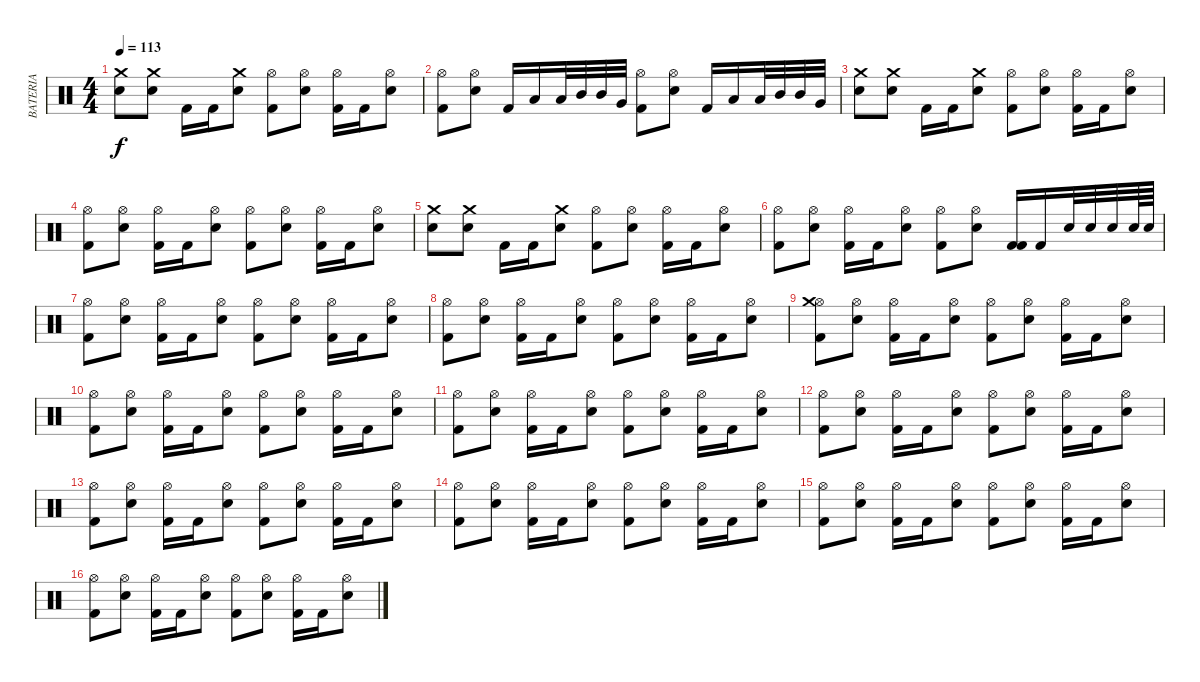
\track ("BATERIA" "BATERIA") {instrument percussion}
\staff {score}
\articulation defaults
\ts (4 4)
\tempo 113
\clef neutral
\ks c
("Crash medium (hit)" "Electric Snare (hit)").8{dy f} ("Crash medium (hit)" "Electric Snare (hit)").8 "Kick (hit) 2".16 "Kick (hit) 2".16 ("Crash medium (hit)" "Electric Snare (hit)").8 ("Hi-Hat (open)" "Kick (hit) 2").8 ("Hi-Hat (open)" "Electric Snare (hit)").8 ("Hi-Hat (open)" "Kick (hit) 2").16 "Kick (hit) 2".16 ("Hi-Hat (open)" "Electric Snare (hit)").8 |
("Hi-Hat (open)" "Kick (hit) 2").8 ("Hi-Hat (open)" "Electric Snare (hit)").8 "Kick (hit) 2".16 "Low Tom (hit)".16 "Low Tom (hit)".32 "Mid Tom (hit)".32 "Mid Tom (hit)".32 "Very Low Tom (hit)".32 ("Hi-Hat (open)" "Kick (hit) 2").8 ("Hi-Hat (open)" "Electric Snare (hit)").8 "Kick (hit) 2".16 "Low Tom (hit)".16 "Low Tom (hit)".32 "Mid Tom (hit)".32 "Mid Tom (hit)".32 "Very Low Tom (hit)".32 |
("Crash medium (hit)" "Electric Snare (hit)").8 ("Crash medium (hit)" "Electric Snare (hit)").8 "Kick (hit) 2".16 "Kick (hit) 2".16 ("Crash medium (hit)" "Electric Snare (hit)").8 ("Hi-Hat (open)" "Kick (hit) 2").8 ("Hi-Hat (open)" "Electric Snare (hit)").8 ("Hi-Hat (open)" "Kick (hit) 2").16 "Kick (hit) 2".16 ("Hi-Hat (open)" "Electric Snare (hit)").8 |
("Hi-Hat (open)" "Kick (hit) 2").8 ("Hi-Hat (open)" "Electric Snare (hit)").8 ("Hi-Hat (open)" "Kick (hit) 2").16 "Kick (hit) 2".16 ("Hi-Hat (open)" "Electric Snare (hit)").8 ("Hi-Hat (open)" "Kick (hit) 2").8 ("Hi-Hat (open)" "Electric Snare (hit)").8 ("Hi-Hat (open)" "Kick (hit) 2").16 "Kick (hit) 2".16 ("Hi-Hat (open)" "Electric Snare (hit)").8 |
("Crash medium (hit)" "Electric Snare (hit)").8 ("Crash medium (hit)" "Electric Snare (hit)").8 "Kick (hit) 2".16 "Kick (hit) 2".16 ("Crash medium (hit)" "Electric Snare (hit)").8 ("Hi-Hat (open)" "Kick (hit) 2").8 ("Hi-Hat (open)" "Electric Snare (hit)").8 ("Hi-Hat (open)" "Kick (hit) 2").16 "Kick (hit) 2".16 ("Hi-Hat (open)" "Electric Snare (hit)").8 |
("Hi-Hat (open)" "Kick (hit) 2").8 ("Hi-Hat (open)" "Electric Snare (hit)").8 ("Hi-Hat (open)" "Kick (hit) 2").16 "Kick (hit) 2".16 ("Hi-Hat (open)" "Electric Snare (hit)").8 ("Hi-Hat (open)" "Kick (hit) 2").8 ("Hi-Hat (open)" "Electric Snare (hit)").8 ("Kick (hit) 2" "Kick (hit) 2").16 "Kick (hit) 2".16 "Electric Snare (hit)".32 "Electric Snare (hit)".32 "Electric Snare (hit)".32 "Electric Snare (hit)".64 "Electric Snare (hit)".64 |
("Hi-Hat (open)" "Kick (hit) 2").8 ("Hi-Hat (open)" "Electric Snare (hit)").8 ("Hi-Hat (open)" "Kick (hit) 2").16 "Kick (hit) 2".16 ("Hi-Hat (open)" "Electric Snare (hit)").8 ("Hi-Hat (open)" "Kick (hit) 2").8 ("Hi-Hat (open)" "Electric Snare (hit)").8 ("Hi-Hat (open)" "Kick (hit) 2").16 "Kick (hit) 2".16 ("Hi-Hat (open)" "Electric Snare (hit)").8 |
("Hi-Hat (open)" "Kick (hit) 2").8 ("Hi-Hat (open)" "Electric Snare (hit)").8 ("Hi-Hat (open)" "Kick (hit) 2").16 "Kick (hit) 2".16 ("Hi-Hat (open)" "Electric Snare (hit)").8 ("Hi-Hat (open)" "Kick (hit) 2").8 ("Hi-Hat (open)" "Electric Snare (hit)").8 ("Hi-Hat (open)" "Kick (hit) 2").16 "Kick (hit) 2".16 ("Hi-Hat (open)" "Electric Snare (hit)").8 |
("Hi-Hat (open)" "Kick (hit) 2" "Crash medium (hit)").8 ("Hi-Hat (open)" "Electric Snare (hit)").8 ("Hi-Hat (open)" "Kick (hit) 2").16 "Kick (hit) 2".16 ("Hi-Hat (open)" "Electric Snare (hit)").8 ("Hi-Hat (open)" "Kick (hit) 2").8 ("Hi-Hat (open)" "Electric Snare (hit)").8 ("Hi-Hat (open)" "Kick (hit) 2").16 "Kick (hit) 2".16 ("Hi-Hat (open)" "Electric Snare (hit)").8 |
("Hi-Hat (open)" "Kick (hit) 2").8 ("Hi-Hat (open)" "Electric Snare (hit)").8 ("Hi-Hat (open)" "Kick (hit) 2").16 "Kick (hit) 2".16 ("Hi-Hat (open)" "Electric Snare (hit)").8 ("Hi-Hat (open)" "Kick (hit) 2").8 ("Hi-Hat (open)" "Electric Snare (hit)").8 ("Hi-Hat (open)" "Kick (hit) 2").16 "Kick (hit) 2".16 ("Hi-Hat (open)" "Electric Snare (hit)").8 |
("Hi-Hat (open)" "Kick (hit) 2").8 ("Hi-Hat (open)" "Electric Snare (hit)").8 ("Hi-Hat (open)" "Kick (hit) 2").16 "Kick (hit) 2".16 ("Hi-Hat (open)" "Electric Snare (hit)").8 ("Hi-Hat (open)" "Kick (hit) 2").8 ("Hi-Hat (open)" "Electric Snare (hit)").8 ("Hi-Hat (open)" "Kick (hit) 2").16 "Kick (hit) 2".16 ("Hi-Hat (open)" "Electric Snare (hit)").8 |
("Hi-Hat (open)" "Kick (hit) 2").8 ("Hi-Hat (open)" "Electric Snare (hit)").8 ("Hi-Hat (open)" "Kick (hit) 2").16 "Kick (hit) 2".16 ("Hi-Hat (open)" "Electric Snare (hit)").8 ("Hi-Hat (open)" "Kick (hit) 2").8 ("Hi-Hat (open)" "Electric Snare (hit)").8 ("Hi-Hat (open)" "Kick (hit) 2").16 "Kick (hit) 2".16 ("Hi-Hat (open)" "Electric Snare (hit)").8 |
("Hi-Hat (open)" "Kick (hit) 2").8 ("Hi-Hat (open)" "Electric Snare (hit)").8 ("Hi-Hat (open)" "Kick (hit) 2").16 "Kick (hit) 2".16 ("Hi-Hat (open)" "Electric Snare (hit)").8 ("Hi-Hat (open)" "Kick (hit) 2").8 ("Hi-Hat (open)" "Electric Snare (hit)").8 ("Hi-Hat (open)" "Kick (hit) 2").16 "Kick (hit) 2".16 ("Hi-Hat (open)" "Electric Snare (hit)").8 |
("Hi-Hat (open)" "Kick (hit) 2").8 ("Hi-Hat (open)" "Electric Snare (hit)").8 ("Hi-Hat (open)" "Kick (hit) 2").16 "Kick (hit) 2".16 ("Hi-Hat (open)" "Electric Snare (hit)").8 ("Hi-Hat (open)" "Kick (hit) 2").8 ("Hi-Hat (open)" "Electric Snare (hit)").8 ("Hi-Hat (open)" "Kick (hit) 2").16 "Kick (hit) 2".16 ("Hi-Hat (open)" "Electric Snare (hit)").8 |
("Hi-Hat (open)" "Kick (hit) 2").8 ("Hi-Hat (open)" "Electric Snare (hit)").8 ("Hi-Hat (open)" "Kick (hit) 2").16 "Kick (hit) 2".16 ("Hi-Hat (open)" "Electric Snare (hit)").8 ("Hi-Hat (open)" "Kick (hit) 2").8 ("Hi-Hat (open)" "Electric Snare (hit)").8 ("Hi-Hat (open)" "Kick (hit) 2").16 "Kick (hit) 2".16 ("Hi-Hat (open)" "Electric Snare (hit)").8 |
("Hi-Hat (open)" "Kick (hit) 2").8 ("Hi-Hat (open)" "Electric Snare (hit)").8 ("Hi-Hat (open)" "Kick (hit) 2").16 "Kick (hit) 2".16 ("Hi-Hat (open)" "Electric Snare (hit)").8 ("Hi-Hat (open)" "Kick (hit) 2").8 ("Hi-Hat (open)" "Electric Snare (hit)").8 ("Hi-Hat (open)" "Kick (hit) 2").16 "Kick (hit) 2".16 ("Hi-Hat (open)" "Electric Snare (hit)").8
